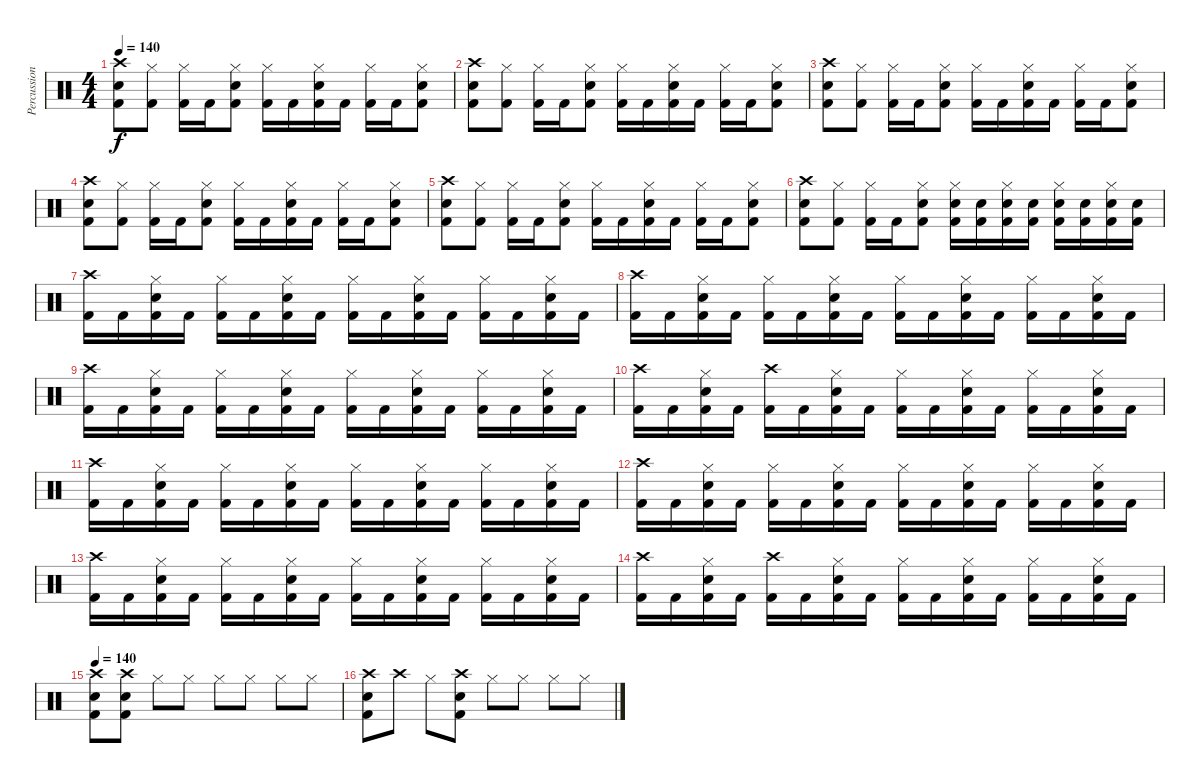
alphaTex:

\track ("Percussion" "Percussion") {instrument percussion}
\staff {score}
\articulation defaults
\ts (4 4)
\tempo 140
\clef neutral
\ks aminor
("Crash high (hit)" "Snare (hit) 2" "Kick (hit) 2").8{dy f} ("Hi-Hat (closed)" "Kick (hit) 2").8 ("Hi-Hat (closed)" "Kick (hit) 2").16 "Kick (hit) 2".16 ("Hi-Hat (closed)" "Snare (hit) 2" "Kick (hit) 2").8 ("Hi-Hat (closed)" "Kick (hit) 2").16 "Kick (hit) 2".16 ("Hi-Hat (closed)" "Snare (hit) 2" "Kick (hit) 2").16 "Kick (hit) 2".16 ("Hi-Hat (closed)" "Kick (hit) 2").16 "Kick (hit) 2".16 ("Hi-Hat (closed)" "Snare (hit) 2" "Kick (hit) 2").8 |
("Crash high (hit)" "Snare (hit) 2" "Kick (hit) 2").8 ("Hi-Hat (closed)" "Kick (hit) 2").8 ("Hi-Hat (closed)" "Kick (hit) 2").16 "Kick (hit) 2".16 ("Hi-Hat (closed)" "Snare (hit) 2" "Kick (hit) 2").8 ("Hi-Hat (closed)" "Kick (hit) 2").16 "Kick (hit) 2".16 ("Hi-Hat (closed)" "Snare (hit) 2" "Kick (hit) 2").16 "Kick (hit) 2".16 ("Hi-Hat (closed)" "Kick (hit) 2").16 "Kick (hit) 2".16 ("Hi-Hat (closed)" "Snare (hit) 2" "Kick (hit) 2").8 |
("Crash high (hit)" "Snare (hit) 2" "Kick (hit) 2").8 ("Hi-Hat (closed)" "Kick (hit) 2").8 ("Hi-Hat (closed)" "Kick (hit) 2").16 "Kick (hit) 2".16 ("Hi-Hat (closed)" "Snare (hit) 2" "Kick (hit) 2").8 ("Hi-Hat (closed)" "Kick (hit) 2").16 "Kick (hit) 2".16 ("Hi-Hat (closed)" "Snare (hit) 2" "Kick (hit) 2").16 "Kick (hit) 2".16 ("Hi-Hat (closed)" "Kick (hit) 2").16 "Kick (hit) 2".16 ("Hi-Hat (closed)" "Snare (hit) 2" "Kick (hit) 2").8 |
("Crash high (hit)" "Snare (hit) 2" "Kick (hit) 2").8 ("Hi-Hat (closed)" "Kick (hit) 2").8 ("Hi-Hat (closed)" "Kick (hit) 2").16 "Kick (hit) 2".16 ("Hi-Hat (closed)" "Snare (hit) 2" "Kick (hit) 2").8 ("Hi-Hat (closed)" "Kick (hit) 2").16 "Kick (hit) 2".16 ("Hi-Hat (closed)" "Snare (hit) 2" "Kick (hit) 2").16 "Kick (hit) 2".16 ("Hi-Hat (closed)" "Kick (hit) 2").16 "Kick (hit) 2".16 ("Hi-Hat (closed)" "Snare (hit) 2" "Kick (hit) 2").8 |
("Crash high (hit)" "Snare (hit) 2" "Kick (hit) 2").8 ("Hi-Hat (closed)" "Kick (hit) 2").8 ("Hi-Hat (closed)" "Kick (hit) 2").16 "Kick (hit) 2".16 ("Hi-Hat (closed)" "Snare (hit) 2" "Kick (hit) 2").8 ("Hi-Hat (closed)" "Kick (hit) 2").16 "Kick (hit) 2".16 ("Hi-Hat (closed)" "Snare (hit) 2" "Kick (hit) 2").16 "Kick (hit) 2".16 ("Hi-Hat (closed)" "Kick (hit) 2").16 "Kick (hit) 2".16 ("Hi-Hat (closed)" "Snare (hit) 2" "Kick (hit) 2").8 |
("Crash high (hit)" "Snare (hit) 2" "Kick (hit) 2").8 ("Hi-Hat (closed)" "Kick (hit) 2").8 ("Hi-Hat (closed)" "Kick (hit) 2").16 "Kick (hit) 2".16 ("Hi-Hat (closed)" "Snare (hit) 2" "Kick (hit) 2").8 ("Hi-Hat (closed)" "Snare (hit) 2" "Kick (hit) 2").16 ("Snare (hit) 2" "Kick (hit) 2").16 ("Hi-Hat (closed)" "Snare (hit) 2" "Kick (hit) 2").16 ("Snare (hit) 2" "Kick (hit) 2").16 ("Hi-Hat (closed)" "Snare (hit) 2" "Kick (hit) 2").16 ("Snare (hit) 2" "Kick (hit) 2").16 ("Hi-Hat (closed)" "Snare (hit) 2" "Kick (hit) 2").16 ("Snare (hit) 2" "Kick (hit) 2").16 |
("Crash high (hit)" "Kick (hit) 2").16 "Kick (hit) 2".16 ("Hi-Hat (closed)" "Snare (hit) 2" "Kick (hit) 2").16 "Kick (hit) 2".16 ("Hi-Hat (closed)" "Kick (hit) 2").16 "Kick (hit) 2".16 ("Hi-Hat (closed)" "Snare (hit) 2" "Kick (hit) 2").16 "Kick (hit) 2".16 ("Hi-Hat (closed)" "Kick (hit) 2").16 "Kick (hit) 2".16 ("Hi-Hat (closed)" "Snare (hit) 2" "Kick (hit) 2").16 "Kick (hit) 2".16 ("Hi-Hat (closed)" "Kick (hit) 2").16 "Kick (hit) 2".16 ("Hi-Hat (closed)" "Snare (hit) 2" "Kick (hit) 2").16 "Kick (hit) 2".16 |
("Crash high (hit)" "Kick (hit) 2").16 "Kick (hit) 2".16 ("Hi-Hat (closed)" "Snare (hit) 2" "Kick (hit) 2").16 "Kick (hit) 2".16 ("Hi-Hat (closed)" "Kick (hit) 2").16 "Kick (hit) 2".16 ("Hi-Hat (closed)" "Snare (hit) 2" "Kick (hit) 2").16 "Kick (hit) 2".16 ("Hi-Hat (closed)" "Kick (hit) 2").16 "Kick (hit) 2".16 ("Hi-Hat (closed)" "Snare (hit) 2" "Kick (hit) 2").16 "Kick (hit) 2".16 ("Hi-Hat (closed)" "Kick (hit) 2").16 "Kick (hit) 2".16 ("Hi-Hat (closed)" "Snare (hit) 2" "Kick (hit) 2").16 "Kick (hit) 2".16 |
("Crash high (hit)" "Kick (hit) 2").16 "Kick (hit) 2".16 ("Hi-Hat (closed)" "Snare (hit) 2" "Kick (hit) 2").16 "Kick (hit) 2".16 ("Hi-Hat (closed)" "Kick (hit) 2").16 "Kick (hit) 2".16 ("Hi-Hat (closed)" "Snare (hit) 2" "Kick (hit) 2").16 "Kick (hit) 2".16 ("Hi-Hat (closed)" "Kick (hit) 2").16 "Kick (hit) 2".16 ("Hi-Hat (closed)" "Snare (hit) 2" "Kick (hit) 2").16 "Kick (hit) 2".16 ("Hi-Hat (closed)" "Kick (hit) 2").16 "Kick (hit) 2".16 ("Hi-Hat (closed)" "Snare (hit) 2" "Kick (hit) 2").16 "Kick (hit) 2".16 |
("Crash high (hit)" "Kick (hit) 2").16 "Kick (hit) 2".16 ("Hi-Hat (closed)" "Snare (hit) 2" "Kick (hit) 2").16 "Kick (hit) 2".16 ("Crash high (hit)" "Kick (hit) 2").16 "Kick (hit) 2".16 ("Hi-Hat (closed)" "Snare (hit) 2" "Kick (hit) 2").16 "Kick (hit) 2".16 ("Hi-Hat (closed)" "Kick (hit) 2").16 "Kick (hit) 2".16 ("Hi-Hat (closed)" "Snare (hit) 2" "Kick (hit) 2").16 "Kick (hit) 2".16 ("Hi-Hat (closed)" "Kick (hit) 2").16 "Kick (hit) 2".16 ("Hi-Hat (closed)" "Snare (hit) 2" "Kick (hit) 2").16 "Kick (hit) 2".16 |
("Crash high (hit)" "Kick (hit) 2").16 "Kick (hit) 2".16 ("Hi-Hat (closed)" "Snare (hit) 2" "Kick (hit) 2").16 "Kick (hit) 2".16 ("Hi-Hat (closed)" "Kick (hit) 2").16 "Kick (hit) 2".16 ("Hi-Hat (closed)" "Snare (hit) 2" "Kick (hit) 2").16 "Kick (hit) 2".16 ("Hi-Hat (closed)" "Kick (hit) 2").16 "Kick (hit) 2".16 ("Hi-Hat (closed)" "Snare (hit) 2" "Kick (hit) 2").16 "Kick (hit) 2".16 ("Hi-Hat (closed)" "Kick (hit) 2").16 "Kick (hit) 2".16 ("Hi-Hat (closed)" "Snare (hit) 2" "Kick (hit) 2").16 "Kick (hit) 2".16 |
("Crash high (hit)" "Kick (hit) 2").16 "Kick (hit) 2".16 ("Hi-Hat (closed)" "Snare (hit) 2" "Kick (hit) 2").16 "Kick (hit) 2".16 ("Hi-Hat (closed)" "Kick (hit) 2").16 "Kick (hit) 2".16 ("Hi-Hat (closed)" "Snare (hit) 2" "Kick (hit) 2").16 "Kick (hit) 2".16 ("Hi-Hat (closed)" "Kick (hit) 2").16 "Kick (hit) 2".16 ("Hi-Hat (closed)" "Snare (hit) 2" "Kick (hit) 2").16 "Kick (hit) 2".16 ("Hi-Hat (closed)" "Kick (hit) 2").16 "Kick (hit) 2".16 ("Hi-Hat (closed)" "Snare (hit) 2" "Kick (hit) 2").16 "Kick (hit) 2".16 |
("Crash high (hit)" "Kick (hit) 2").16 "Kick (hit) 2".16 ("Hi-Hat (closed)" "Snare (hit) 2" "Kick (hit) 2").16 "Kick (hit) 2".16 ("Hi-Hat (closed)" "Kick (hit) 2").16 "Kick (hit) 2".16 ("Hi-Hat (closed)" "Snare (hit) 2" "Kick (hit) 2").16 "Kick (hit) 2".16 ("Hi-Hat (closed)" "Kick (hit) 2").16 "Kick (hit) 2".16 ("Hi-Hat (closed)" "Snare (hit) 2" "Kick (hit) 2").16 "Kick (hit) 2".16 ("Hi-Hat (closed)" "Kick (hit) 2").16 "Kick (hit) 2".16 ("Hi-Hat (closed)" "Snare (hit) 2" "Kick (hit) 2").16 "Kick (hit) 2".16 |
("Crash high (hit)" "Kick (hit) 2").16 "Kick (hit) 2".16 ("Hi-Hat (closed)" "Snare (hit) 2" "Kick (hit) 2").16 "Kick (hit) 2".16 ("Crash high (hit)" "Kick (hit) 2").16 "Kick (hit) 2".16 ("Hi-Hat (closed)" "Snare (hit) 2" "Kick (hit) 2").16 "Kick (hit) 2".16 ("Hi-Hat (closed)" "Kick (hit) 2").16 "Kick (hit) 2".16 ("Hi-Hat (closed)" "Snare (hit) 2" "Kick (hit) 2").16 "Kick (hit) 2".16 ("Hi-Hat (closed)" "Kick (hit) 2").16 "Kick (hit) 2".16 ("Hi-Hat (closed)" "Snare (hit) 2" "Kick (hit) 2").16 "Kick (hit) 2".16 |
\tempo 140
("Crash high (hit)" "Snare (hit) 2" "Kick (hit) 2").8 ("Crash high (hit)" "Snare (hit) 2" "Kick (hit) 2").8 "Hi-Hat (closed)".8 "Hi-Hat (closed)".8 "Hi-Hat (closed)".8 "Hi-Hat (closed)".8 "Hi-Hat (closed)".8 "Hi-Hat (closed)".8 |
("Crash high (hit)" "Snare (hit) 2" "Kick (hit) 2").8 "Crash high (hit)".8 "Hi-Hat (closed)".8 ("Crash high (hit)" "Snare (hit) 2" "Kick (hit) 2").8 "Hi-Hat (closed)".8 "Hi-Hat (closed)".8 "Hi-Hat (closed)".8 "Hi-Hat (closed)".8
